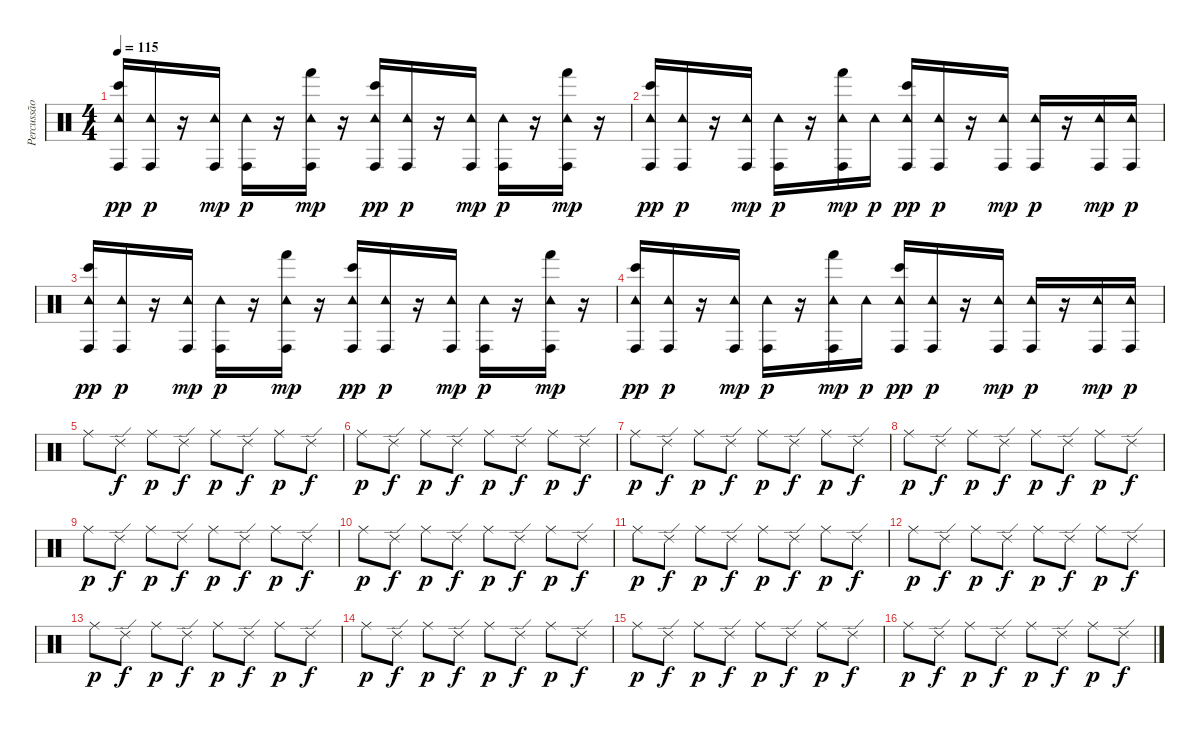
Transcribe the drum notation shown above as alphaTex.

\track ("Percussão" "Percussão") {instrument percussion}
\staff {score}
\articulation defaults
\ts (4 4)
\tempo 115
\clef neutral
\ks c
("Tambourine (hit)" "Conga high (hit)" "Bongo High (hit)").16{dy pp} ("Tambourine (hit)" "Conga high (hit)").16{dy p} r.16 ("Tambourine (hit)" "Conga high (hit)").16{dy mp} ("Tambourine (hit)" "Conga high (hit)").16{dy p} r.16 ("Tambourine (hit)" "Conga high (hit)" "Hand (hit)").16{dy mp} r.16 ("Tambourine (hit)" "Conga high (hit)" "Bongo High (hit)").16{dy pp} ("Tambourine (hit)" "Conga high (hit)").16{dy p} r.16 ("Tambourine (hit)" "Conga high (hit)").16{dy mp} ("Tambourine (hit)" "Conga high (hit)").16{dy p} r.16 ("Tambourine (hit)" "Conga high (hit)" "Hand (hit)").16{dy mp} r.16 |
("Tambourine (hit)" "Conga high (hit)" "Bongo High (hit)").16{dy pp} ("Tambourine (hit)" "Conga high (hit)").16{dy p} r.16 ("Tambourine (hit)" "Conga high (hit)").16{dy mp} ("Tambourine (hit)" "Conga high (hit)").16{dy p} r.16 ("Tambourine (hit)" "Conga high (hit)" "Hand (hit)").16{dy mp} "Tambourine (hit)".16{dy p} ("Tambourine (hit)" "Conga high (hit)" "Bongo High (hit)").16{dy pp} ("Tambourine (hit)" "Conga high (hit)").16{dy p} r.16 ("Tambourine (hit)" "Conga high (hit)").16{dy mp} ("Tambourine (hit)" "Conga high (hit)").16{dy p} r.16 ("Tambourine (hit)" "Conga high (hit)").16{dy mp} ("Tambourine (hit)" "Conga high (hit)").16{dy p} |
("Tambourine (hit)" "Conga high (hit)" "Bongo High (hit)").16{dy pp} ("Tambourine (hit)" "Conga high (hit)").16{dy p} r.16 ("Tambourine (hit)" "Conga high (hit)").16{dy mp} ("Tambourine (hit)" "Conga high (hit)").16{dy p} r.16 ("Tambourine (hit)" "Conga high (hit)" "Hand (hit)").16{dy mp} r.16 ("Tambourine (hit)" "Conga high (hit)" "Bongo High (hit)").16{dy pp} ("Tambourine (hit)" "Conga high (hit)").16{dy p} r.16 ("Tambourine (hit)" "Conga high (hit)").16{dy mp} ("Tambourine (hit)" "Conga high (hit)").16{dy p} r.16 ("Tambourine (hit)" "Conga high (hit)" "Hand (hit)").16{dy mp} r.16 |
("Tambourine (hit)" "Conga high (hit)" "Bongo High (hit)").16{dy pp} ("Tambourine (hit)" "Conga high (hit)").16{dy p} r.16 ("Tambourine (hit)" "Conga high (hit)").16{dy mp} ("Tambourine (hit)" "Conga high (hit)").16{dy p} r.16 ("Tambourine (hit)" "Conga high (hit)" "Hand (hit)").16{dy mp} "Tambourine (hit)".16{dy p} ("Tambourine (hit)" "Conga high (hit)" "Bongo High (hit)").16{dy pp} ("Tambourine (hit)" "Conga high (hit)").16{dy p} r.16 ("Tambourine (hit)" "Conga high (hit)").16{dy mp} ("Tambourine (hit)" "Conga high (hit)").16{dy p} r.16 ("Tambourine (hit)" "Conga high (hit)").16{dy mp} ("Tambourine (hit)" "Conga high (hit)").16{dy p} |
"Ride (middle)".8 "Ride (edge) 2".8{dy f} "Ride (middle)".8{dy p} "Ride (edge) 2".8{dy f} "Ride (middle)".8{dy p} "Ride (edge) 2".8{dy f} "Ride (middle)".8{dy p} "Ride (edge) 2".8{dy f} |
"Ride (middle)".8{dy p} "Ride (edge) 2".8{dy f} "Ride (middle)".8{dy p} "Ride (edge) 2".8{dy f} "Ride (middle)".8{dy p} "Ride (edge) 2".8{dy f} "Ride (middle)".8{dy p} "Ride (edge) 2".8{dy f} |
"Ride (middle)".8{dy p} "Ride (edge) 2".8{dy f} "Ride (middle)".8{dy p} "Ride (edge) 2".8{dy f} "Ride (middle)".8{dy p} "Ride (edge) 2".8{dy f} "Ride (middle)".8{dy p} "Ride (edge) 2".8{dy f} |
"Ride (middle)".8{dy p} "Ride (edge) 2".8{dy f} "Ride (middle)".8{dy p} "Ride (edge) 2".8{dy f} "Ride (middle)".8{dy p} "Ride (edge) 2".8{dy f} "Ride (middle)".8{dy p} "Ride (edge) 2".8{dy f} |
"Ride (middle)".8{dy p} "Ride (edge) 2".8{dy f} "Ride (middle)".8{dy p} "Ride (edge) 2".8{dy f} "Ride (middle)".8{dy p} "Ride (edge) 2".8{dy f} "Ride (middle)".8{dy p} "Ride (edge) 2".8{dy f} |
"Ride (middle)".8{dy p} "Ride (edge) 2".8{dy f} "Ride (middle)".8{dy p} "Ride (edge) 2".8{dy f} "Ride (middle)".8{dy p} "Ride (edge) 2".8{dy f} "Ride (middle)".8{dy p} "Ride (edge) 2".8{dy f} |
"Ride (middle)".8{dy p} "Ride (edge) 2".8{dy f} "Ride (middle)".8{dy p} "Ride (edge) 2".8{dy f} "Ride (middle)".8{dy p} "Ride (edge) 2".8{dy f} "Ride (middle)".8{dy p} "Ride (edge) 2".8{dy f} |
"Ride (middle)".8{dy p} "Ride (edge) 2".8{dy f} "Ride (middle)".8{dy p} "Ride (edge) 2".8{dy f} "Ride (middle)".8{dy p} "Ride (edge) 2".8{dy f} "Ride (middle)".8{dy p} "Ride (edge) 2".8{dy f} |
"Ride (middle)".8{dy p} "Ride (edge) 2".8{dy f} "Ride (middle)".8{dy p} "Ride (edge) 2".8{dy f} "Ride (middle)".8{dy p} "Ride (edge) 2".8{dy f} "Ride (middle)".8{dy p} "Ride (edge) 2".8{dy f} |
"Ride (middle)".8{dy p} "Ride (edge) 2".8{dy f} "Ride (middle)".8{dy p} "Ride (edge) 2".8{dy f} "Ride (middle)".8{dy p} "Ride (edge) 2".8{dy f} "Ride (middle)".8{dy p} "Ride (edge) 2".8{dy f} |
"Ride (middle)".8{dy p} "Ride (edge) 2".8{dy f} "Ride (middle)".8{dy p} "Ride (edge) 2".8{dy f} "Ride (middle)".8{dy p} "Ride (edge) 2".8{dy f} "Ride (middle)".8{dy p} "Ride (edge) 2".8{dy f} |
"Ride (middle)".8{dy p} "Ride (edge) 2".8{dy f} "Ride (middle)".8{dy p} "Ride (edge) 2".8{dy f} "Ride (middle)".8{dy p} "Ride (edge) 2".8{dy f} "Ride (middle)".8{dy p} "Ride (edge) 2".8{dy f}
